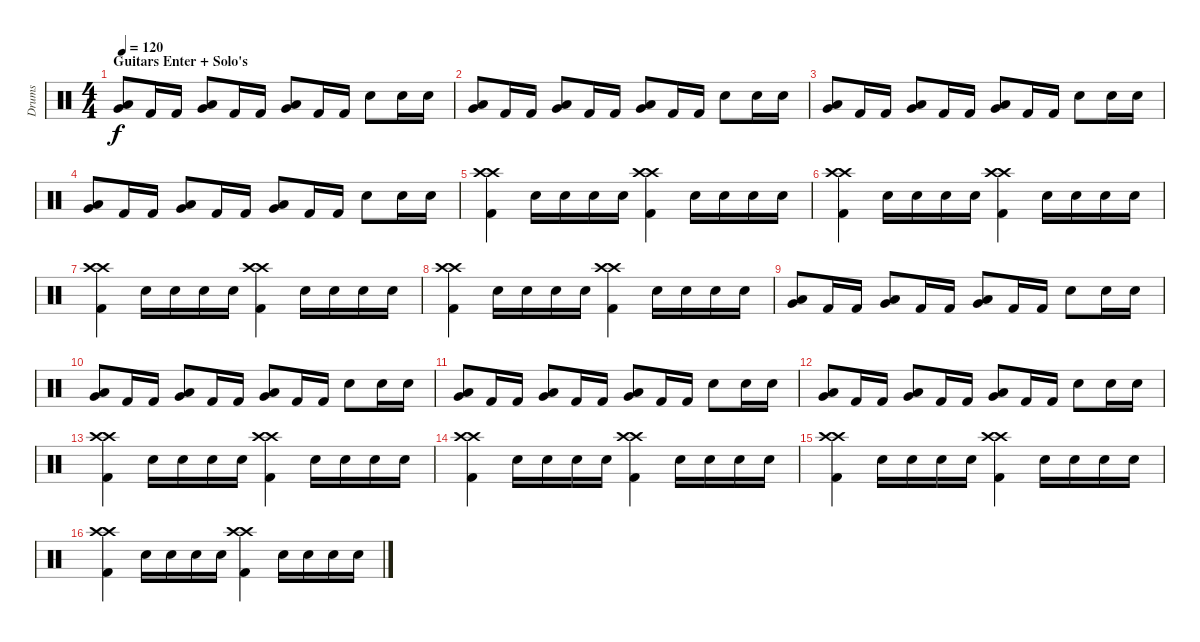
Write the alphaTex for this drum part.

\track ("Drums" "Drums") {instrument percussion}
\staff {score}
\articulation defaults
\ts (4 4)
\section ("" "Guitars Enter + Solo's")
\tempo 120
\clef neutral
\ks c
("Low Floor Tom (hit)" "Very Low Tom (hit)").8{dy f volume 14} "Kick (hit) 2".16 "Kick (hit) 2".16 ("Low Floor Tom (hit)" "Very Low Tom (hit)").8 "Kick (hit) 2".16 "Kick (hit) 2".16 ("Low Floor Tom (hit)" "Very Low Tom (hit)").8 "Kick (hit) 2".16 "Kick (hit) 2".16 "Electric Snare (hit)".8 "Electric Snare (hit)".16 "Electric Snare (hit)".16 |
("Low Floor Tom (hit)" "Very Low Tom (hit)").8{volume 14} "Kick (hit) 2".16 "Kick (hit) 2".16 ("Low Floor Tom (hit)" "Very Low Tom (hit)").8 "Kick (hit) 2".16 "Kick (hit) 2".16 ("Low Floor Tom (hit)" "Very Low Tom (hit)").8 "Kick (hit) 2".16 "Kick (hit) 2".16 "Electric Snare (hit)".8 "Electric Snare (hit)".16 "Electric Snare (hit)".16 |
("Low Floor Tom (hit)" "Very Low Tom (hit)").8{volume 14} "Kick (hit) 2".16 "Kick (hit) 2".16 ("Low Floor Tom (hit)" "Very Low Tom (hit)").8 "Kick (hit) 2".16 "Kick (hit) 2".16 ("Low Floor Tom (hit)" "Very Low Tom (hit)").8 "Kick (hit) 2".16 "Kick (hit) 2".16 "Electric Snare (hit)".8 "Electric Snare (hit)".16 "Electric Snare (hit)".16 |
("Low Floor Tom (hit)" "Very Low Tom (hit)").8{volume 14} "Kick (hit) 2".16 "Kick (hit) 2".16 ("Low Floor Tom (hit)" "Very Low Tom (hit)").8 "Kick (hit) 2".16 "Kick (hit) 2".16 ("Low Floor Tom (hit)" "Very Low Tom (hit)").8 "Kick (hit) 2".16 "Kick (hit) 2".16 "Electric Snare (hit)".8 "Electric Snare (hit)".16 "Electric Snare (hit)".16 |
("Crash high (hit)" "Crash high (hit)" "Kick (hit) 2").4 "Electric Snare (hit)".16 "Electric Snare (hit)".16 "Electric Snare (hit)".16 "Electric Snare (hit)".16 ("Crash high (hit)" "Crash high (hit)" "Kick (hit) 2").4 "Electric Snare (hit)".16 "Electric Snare (hit)".16 "Electric Snare (hit)".16 "Electric Snare (hit)".16 |
("Crash high (hit)" "Crash high (hit)" "Kick (hit) 2").4 "Electric Snare (hit)".16 "Electric Snare (hit)".16 "Electric Snare (hit)".16 "Electric Snare (hit)".16 ("Crash high (hit)" "Crash high (hit)" "Kick (hit) 2").4 "Electric Snare (hit)".16 "Electric Snare (hit)".16 "Electric Snare (hit)".16 "Electric Snare (hit)".16 |
("Crash high (hit)" "Crash high (hit)" "Kick (hit) 2").4 "Electric Snare (hit)".16 "Electric Snare (hit)".16 "Electric Snare (hit)".16 "Electric Snare (hit)".16 ("Crash high (hit)" "Crash high (hit)" "Kick (hit) 2").4 "Electric Snare (hit)".16 "Electric Snare (hit)".16 "Electric Snare (hit)".16 "Electric Snare (hit)".16 |
("Crash high (hit)" "Crash high (hit)" "Kick (hit) 2").4 "Electric Snare (hit)".16 "Electric Snare (hit)".16 "Electric Snare (hit)".16 "Electric Snare (hit)".16 ("Crash high (hit)" "Crash high (hit)" "Kick (hit) 2").4 "Electric Snare (hit)".16 "Electric Snare (hit)".16 "Electric Snare (hit)".16 "Electric Snare (hit)".16 |
("Low Floor Tom (hit)" "Very Low Tom (hit)").8{volume 14} "Kick (hit) 2".16 "Kick (hit) 2".16 ("Low Floor Tom (hit)" "Very Low Tom (hit)").8 "Kick (hit) 2".16 "Kick (hit) 2".16 ("Low Floor Tom (hit)" "Very Low Tom (hit)").8 "Kick (hit) 2".16 "Kick (hit) 2".16 "Electric Snare (hit)".8 "Electric Snare (hit)".16 "Electric Snare (hit)".16 |
("Low Floor Tom (hit)" "Very Low Tom (hit)").8{volume 14} "Kick (hit) 2".16 "Kick (hit) 2".16 ("Low Floor Tom (hit)" "Very Low Tom (hit)").8 "Kick (hit) 2".16 "Kick (hit) 2".16 ("Low Floor Tom (hit)" "Very Low Tom (hit)").8 "Kick (hit) 2".16 "Kick (hit) 2".16 "Electric Snare (hit)".8 "Electric Snare (hit)".16 "Electric Snare (hit)".16 |
("Low Floor Tom (hit)" "Very Low Tom (hit)").8{volume 14} "Kick (hit) 2".16 "Kick (hit) 2".16 ("Low Floor Tom (hit)" "Very Low Tom (hit)").8 "Kick (hit) 2".16 "Kick (hit) 2".16 ("Low Floor Tom (hit)" "Very Low Tom (hit)").8 "Kick (hit) 2".16 "Kick (hit) 2".16 "Electric Snare (hit)".8 "Electric Snare (hit)".16 "Electric Snare (hit)".16 |
("Low Floor Tom (hit)" "Very Low Tom (hit)").8{volume 14} "Kick (hit) 2".16 "Kick (hit) 2".16 ("Low Floor Tom (hit)" "Very Low Tom (hit)").8 "Kick (hit) 2".16 "Kick (hit) 2".16 ("Low Floor Tom (hit)" "Very Low Tom (hit)").8 "Kick (hit) 2".16 "Kick (hit) 2".16 "Electric Snare (hit)".8 "Electric Snare (hit)".16 "Electric Snare (hit)".16 |
("Crash high (hit)" "Crash high (hit)" "Kick (hit) 2").4 "Electric Snare (hit)".16 "Electric Snare (hit)".16 "Electric Snare (hit)".16 "Electric Snare (hit)".16 ("Crash high (hit)" "Crash high (hit)" "Kick (hit) 2").4 "Electric Snare (hit)".16 "Electric Snare (hit)".16 "Electric Snare (hit)".16 "Electric Snare (hit)".16 |
("Crash high (hit)" "Crash high (hit)" "Kick (hit) 2").4 "Electric Snare (hit)".16 "Electric Snare (hit)".16 "Electric Snare (hit)".16 "Electric Snare (hit)".16 ("Crash high (hit)" "Crash high (hit)" "Kick (hit) 2").4 "Electric Snare (hit)".16 "Electric Snare (hit)".16 "Electric Snare (hit)".16 "Electric Snare (hit)".16 |
("Crash high (hit)" "Crash high (hit)" "Kick (hit) 2").4 "Electric Snare (hit)".16 "Electric Snare (hit)".16 "Electric Snare (hit)".16 "Electric Snare (hit)".16 ("Crash high (hit)" "Crash high (hit)" "Kick (hit) 2").4 "Electric Snare (hit)".16 "Electric Snare (hit)".16 "Electric Snare (hit)".16 "Electric Snare (hit)".16 |
("Crash high (hit)" "Crash high (hit)" "Kick (hit) 2").4 "Electric Snare (hit)".16 "Electric Snare (hit)".16 "Electric Snare (hit)".16 "Electric Snare (hit)".16 ("Crash high (hit)" "Crash high (hit)" "Kick (hit) 2").4 "Electric Snare (hit)".16 "Electric Snare (hit)".16 "Electric Snare (hit)".16 "Electric Snare (hit)".16
